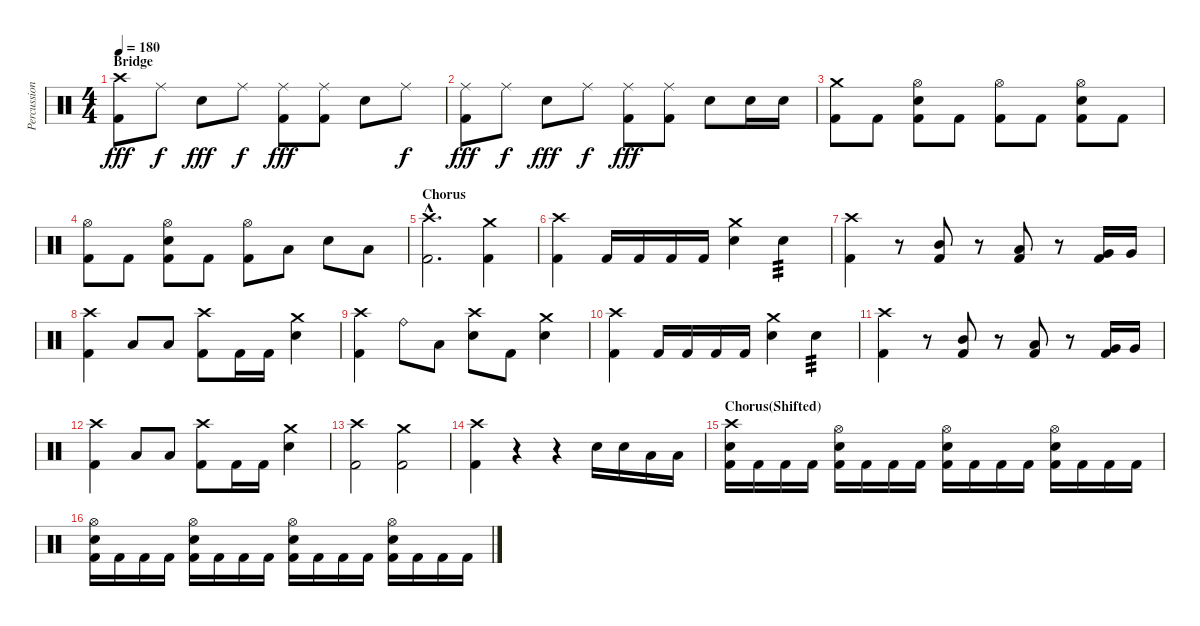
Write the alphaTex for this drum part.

\track ("Percussion" "Percussion") {instrument percussion}
\staff {score}
\articulation defaults
\ts (4 4)
\section ("" "Bridge")
\tempo 180
\clef neutral
\ks c
("Crash high (hit)" "Kick (hit) 2").8{dy fff volume 16} "Ride (middle)".8{dy f} "Snare (hit) 2".8{dy fff} "Ride (middle)".8{dy f} ("Ride (middle)" "Kick (hit) 2").8{dy fff} ("Ride (middle)" "Kick (hit) 2").8 "Snare (hit) 2".8 "Ride (middle)".8{dy f} |
("Ride (middle)" "Kick (hit) 2").8{dy fff} "Ride (middle)".8{dy f} "Snare (hit) 2".8{dy fff} "Ride (middle)".8{dy f} ("Ride (middle)" "Kick (hit) 2").8{dy fff} ("Ride (middle)" "Kick (hit) 2").8 "Snare (hit) 2".8 "Snare (hit) 2".16 "Snare (hit) 2".16 |
("Crash medium (hit)" "Kick (hit) 2").8 "Kick (hit) 2".8 ("Hi-Hat (open)" "Snare (hit) 2" "Kick (hit) 2").8 "Kick (hit) 2".8 ("Hi-Hat (open)" "Kick (hit) 2").8 "Kick (hit) 2".8 ("Hi-Hat (open)" "Snare (hit) 2" "Kick (hit) 2").8 "Kick (hit) 2".8 |
("Hi-Hat (open)" "Kick (hit) 2").8 "Kick (hit) 2".8 ("Hi-Hat (open)" "Snare (hit) 2" "Kick (hit) 2").8 "Kick (hit) 2".8 ("Hi-Hat (open)" "Kick (hit) 2").8 "Low Tom (hit)".8 "Snare (hit) 2".8 "Low Tom (hit)".8 |
\section ("" "Chorus")
("Crash high (hit)"{hac} "Kick (hit) 2"{hac}).2{d} ("Crash medium (hit)" "Kick (hit) 2").4 |
("Crash high (hit)" "Kick (hit) 2").4 "Kick (hit) 2".16 "Kick (hit) 2".16 "Kick (hit) 2".16 "Kick (hit) 2".16 ("Crash medium (hit)" "Snare (hit) 2").4 "Snare (hit) 2".4{tp 3} |
("Crash high (hit)" "Kick (hit) 2").4 r.8 ("Mid Tom (hit)" "Kick (hit) 2").8 r.8 ("Low Tom (hit)" "Kick (hit) 2").8 r.8 ("Very Low Tom (hit)" "Kick (hit) 2").16 "Very Low Tom (hit)".16 |
("Crash high (hit)" "Kick (hit) 2").4 "Low Floor Tom (hit)".8 "Low Tom (hit)".8 ("Crash high (hit)" "Kick (hit) 2").8 "Kick (hit) 2".16 "Kick (hit) 2".16 ("Crash medium (hit)" "Snare (hit) 2").4 |
("Crash high (hit)" "Kick (hit) 2").4 "Ride (bell)".8 "Low Tom (hit)".8 ("Crash high (hit)" "Snare (hit) 2").8 "Kick (hit) 2".8 ("Crash medium (hit)" "Snare (hit) 2").4 |
("Crash high (hit)" "Kick (hit) 2").4 "Kick (hit) 2".16 "Kick (hit) 2".16 "Kick (hit) 2".16 "Kick (hit) 2".16 ("Crash medium (hit)" "Snare (hit) 2").4 "Snare (hit) 2".4{tp 3} |
("Crash high (hit)" "Kick (hit) 2").4 r.8 ("Mid Tom (hit)" "Kick (hit) 2").8 r.8 ("Low Tom (hit)" "Kick (hit) 2").8 r.8 ("Very Low Tom (hit)" "Kick (hit) 2").16 "Very Low Tom (hit)".16 |
("Crash high (hit)" "Kick (hit) 2").4 "Low Floor Tom (hit)".8 "Low Tom (hit)".8 ("Crash high (hit)" "Kick (hit) 2").8 "Kick (hit) 2".16 "Kick (hit) 2".16 ("Crash medium (hit)" "Snare (hit) 2").4 |
("Crash high (hit)" "Kick (hit) 2").2 ("Crash medium (hit)" "Kick (hit) 2").2 |
("Crash high (hit)" "Kick (hit) 2").4 r.4 r.4 "Snare (hit) 2".16 "Snare (hit) 2".16 "Low Tom (hit)".16 "Low Tom (hit)".16 |
\section ("" "Chorus(Shifted)")
("Crash high (hit)" "Snare (hit) 2" "Kick (hit) 2").16 "Kick (hit) 2".16 "Kick (hit) 2".16 "Kick (hit) 2".16 ("Hi-Hat (open)" "Snare (hit) 2" "Kick (hit) 2").16 "Kick (hit) 2".16 "Kick (hit) 2".16 "Kick (hit) 2".16 ("Hi-Hat (open)" "Snare (hit) 2" "Kick (hit) 2").16 "Kick (hit) 2".16 "Kick (hit) 2".16 "Kick (hit) 2".16 ("Hi-Hat (open)" "Snare (hit) 2" "Kick (hit) 2").16 "Kick (hit) 2".16 "Kick (hit) 2".16 "Kick (hit) 2".16 |
("Hi-Hat (open)" "Snare (hit) 2" "Kick (hit) 2").16 "Kick (hit) 2".16 "Kick (hit) 2".16 "Kick (hit) 2".16 ("Hi-Hat (open)" "Snare (hit) 2" "Kick (hit) 2").16 "Kick (hit) 2".16 "Kick (hit) 2".16 "Kick (hit) 2".16 ("Hi-Hat (open)" "Snare (hit) 2" "Kick (hit) 2").16 "Kick (hit) 2".16 "Kick (hit) 2".16 "Kick (hit) 2".16 ("Hi-Hat (open)" "Snare (hit) 2" "Kick (hit) 2").16 "Kick (hit) 2".16 "Kick (hit) 2".16 "Kick (hit) 2".16
